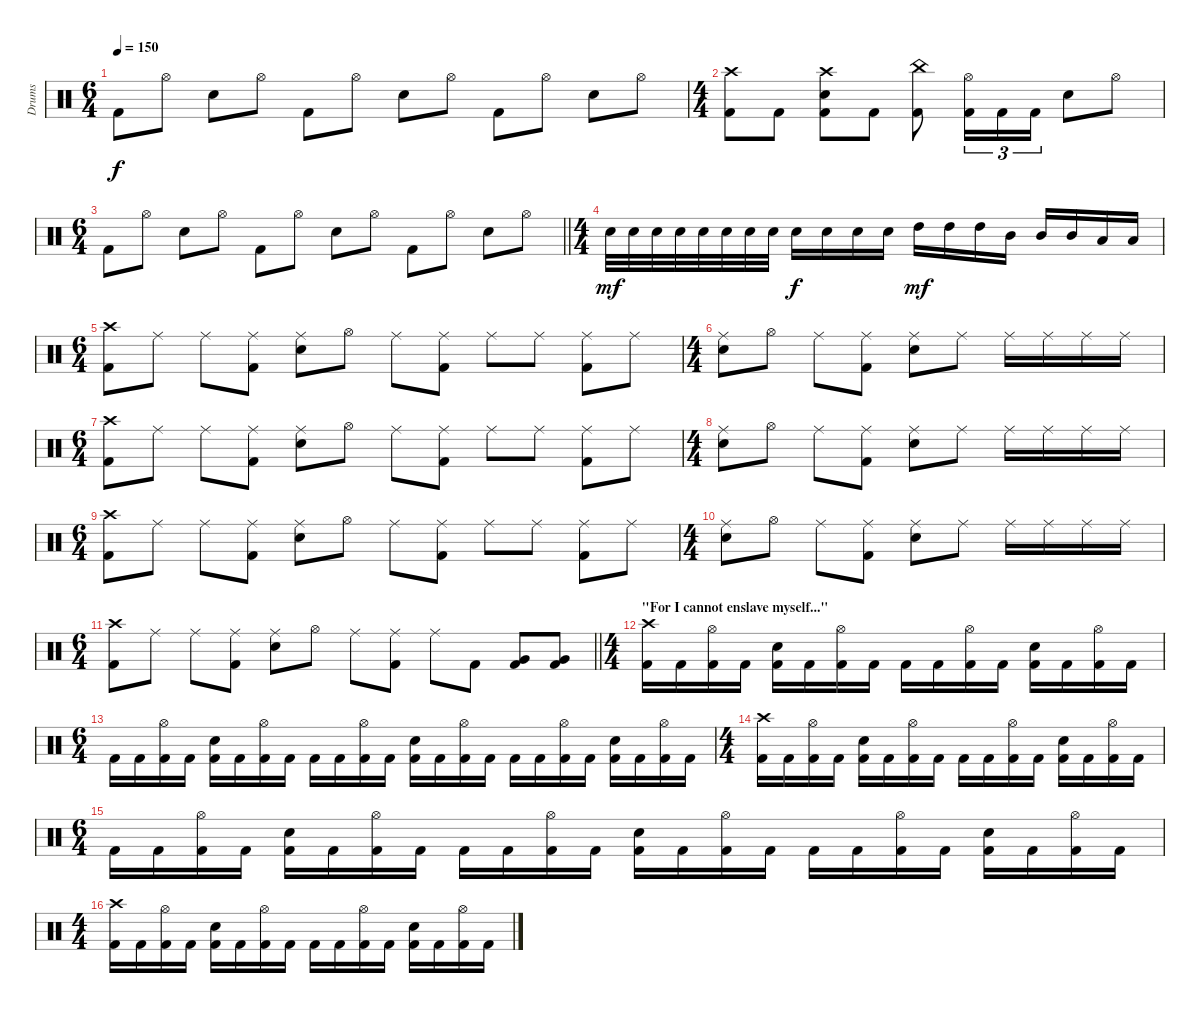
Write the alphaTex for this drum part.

\track ("Drums" "Drums") {instrument percussion}
\staff {score}
\articulation defaults
\ts (6 4)
\tempo 150
\clef neutral
\ks c "Kick (hit) 2".8{dy f} "Hi-Hat (open)".8 "Electric Snare (hit)".8 "Hi-Hat (open)".8 "Kick (hit) 2".8 "Hi-Hat (open)".8 "Electric Snare (hit)".8 "Hi-Hat (open)".8 "Kick (hit) 2".8 "Hi-Hat (open)".8 "Electric Snare (hit)".8 "Hi-Hat (open)".8
|
\ts (4 4)
("Crash high (hit)" "Kick (hit) 2").8 "Kick (hit) 2".8 ("Crash high (hit)" "Electric Snare (hit)" "Kick (hit) 2").8 "Kick (hit) 2".8 ("China (hit)" "Kick (hit) 2").8 ("Hi-Hat (open)" "Kick (hit) 2").16{tu (3 2)} "Kick (hit) 2".16{tu (3 2)} "Kick (hit) 2".16{tu (3 2)} "Electric Snare (hit)".8 "Hi-Hat (open)".8 |
\ts (6 4)
\barLineRight lightlight "Kick (hit) 2".8 "Hi-Hat (open)".8 "Electric Snare (hit)".8 "Hi-Hat (open)".8 "Kick (hit) 2".8 "Hi-Hat (open)".8 "Electric Snare (hit)".8 "Hi-Hat (open)".8 "Kick (hit) 2".8 "Hi-Hat (open)".8 "Electric Snare (hit)".8 "Hi-Hat (open)".8
|
\ts (4 4)
\section ("" "")
"Electric Snare (hit)".32{dy mf} "Electric Snare (hit)".32 "Electric Snare (hit)".32 "Electric Snare (hit)".32 "Electric Snare (hit)".32 "Electric Snare (hit)".32 "Electric Snare (hit)".32 "Electric Snare (hit)".32 "Electric Snare (hit)".16{dy f} "Electric Snare (hit)".16 "Electric Snare (hit)".16 "Electric Snare (hit)".16 "High Tom (hit)".16{dy mf} "High Tom (hit)".16 "High Tom (hit)".16 "Mid Tom (hit)".16 "Mid Tom (hit)".16 "Mid Tom (hit)".16 "Low Tom (hit)".16 "Low Tom (hit)".16 |
\ts (6 4)
("Crash high (hit)" "Kick (hit) 2").8 "Ride (middle)".8 "Ride (middle)".8 ("Ride (middle)" "Kick (hit) 2").8 ("Ride (middle)" "Electric Snare (hit)").8 "Hi-Hat (open)".8 "Ride (middle)".8 ("Ride (middle)" "Kick (hit) 2").8 "Ride (middle)".8 "Ride (middle)".8 ("Ride (middle)" "Kick (hit) 2").8 "Ride (middle)".8 |
\ts (4 4)
("Ride (middle)" "Electric Snare (hit)").8 "Hi-Hat (open)".8 "Ride (middle)".8 ("Ride (middle)" "Kick (hit) 2").8 ("Ride (middle)" "Electric Snare (hit)").8 "Ride (middle)".8 "Ride (middle)".16 "Ride (middle)".16 "Ride (middle)".16 "Ride (middle)".16 |
\ts (6 4)
("Crash high (hit)" "Kick (hit) 2").8 "Ride (middle)".8 "Ride (middle)".8 ("Ride (middle)" "Kick (hit) 2").8 ("Ride (middle)" "Electric Snare (hit)").8 "Hi-Hat (open)".8 "Ride (middle)".8 ("Ride (middle)" "Kick (hit) 2").8 "Ride (middle)".8 "Ride (middle)".8 ("Ride (middle)" "Kick (hit) 2").8 "Ride (middle)".8 |
\ts (4 4)
("Ride (middle)" "Electric Snare (hit)").8 "Hi-Hat (open)".8 "Ride (middle)".8 ("Ride (middle)" "Kick (hit) 2").8 ("Ride (middle)" "Electric Snare (hit)").8 "Ride (middle)".8 "Ride (middle)".16 "Ride (middle)".16 "Ride (middle)".16 "Ride (middle)".16 |
\ts (6 4)
("Crash high (hit)" "Kick (hit) 2").8 "Ride (middle)".8 "Ride (middle)".8 ("Ride (middle)" "Kick (hit) 2").8 ("Ride (middle)" "Electric Snare (hit)").8 "Hi-Hat (open)".8 "Ride (middle)".8 ("Ride (middle)" "Kick (hit) 2").8 "Ride (middle)".8 "Ride (middle)".8 ("Ride (middle)" "Kick (hit) 2").8 "Ride (middle)".8 |
\ts (4 4)
("Ride (middle)" "Electric Snare (hit)").8 "Hi-Hat (open)".8 "Ride (middle)".8 ("Ride (middle)" "Kick (hit) 2").8 ("Ride (middle)" "Electric Snare (hit)").8 "Ride (middle)".8 "Ride (middle)".16 "Ride (middle)".16 "Ride (middle)".16 "Ride (middle)".16 |
\ts (6 4)
\barLineRight lightlight
("Crash high (hit)" "Kick (hit) 2").8 "Ride (middle)".8 "Ride (middle)".8 ("Ride (middle)" "Kick (hit) 2").8 ("Ride (middle)" "Electric Snare (hit)").8 "Hi-Hat (open)".8 "Ride (middle)".8 ("Ride (middle)" "Kick (hit) 2").8 "Ride (middle)".8 "Kick (hit) 2".8 ("Very Low Tom (hit)" "Kick (hit) 2").8 ("Very Low Tom (hit)" "Kick (hit) 2").8 |
\ts (4 4)
\section ("" "\"For I cannot enslave myself...\"")
("Crash high (hit)" "Kick (hit) 2").16 "Kick (hit) 2".16 ("Hi-Hat (open)" "Kick (hit) 2").16 "Kick (hit) 2".16 ("Electric Snare (hit)" "Kick (hit) 2").16 "Kick (hit) 2".16 ("Hi-Hat (open)" "Kick (hit) 2").16 "Kick (hit) 2".16 "Kick (hit) 2".16 "Kick (hit) 2".16 ("Hi-Hat (open)" "Kick (hit) 2").16 "Kick (hit) 2".16 ("Electric Snare (hit)" "Kick (hit) 2").16 "Kick (hit) 2".16 ("Hi-Hat (open)" "Kick (hit) 2").16 "Kick (hit) 2".16 |
\ts (6 4)
"Kick (hit) 2".16 "Kick (hit) 2".16 ("Hi-Hat (open)" "Kick (hit) 2").16 "Kick (hit) 2".16 ("Electric Snare (hit)" "Kick (hit) 2").16 "Kick (hit) 2".16 ("Hi-Hat (open)" "Kick (hit) 2").16 "Kick (hit) 2".16 "Kick (hit) 2".16 "Kick (hit) 2".16 ("Hi-Hat (open)" "Kick (hit) 2").16 "Kick (hit) 2".16 ("Electric Snare (hit)" "Kick (hit) 2").16 "Kick (hit) 2".16 ("Hi-Hat (open)" "Kick (hit) 2").16 "Kick (hit) 2".16 "Kick (hit) 2".16 "Kick (hit) 2".16 ("Hi-Hat (open)" "Kick (hit) 2").16 "Kick (hit) 2".16 ("Electric Snare (hit)" "Kick (hit) 2").16 "Kick (hit) 2".16 ("Hi-Hat (open)" "Kick (hit) 2").16 "Kick (hit) 2".16 |
\ts (4 4)
("Crash high (hit)" "Kick (hit) 2").16 "Kick (hit) 2".16 ("Hi-Hat (open)" "Kick (hit) 2").16 "Kick (hit) 2".16 ("Electric Snare (hit)" "Kick (hit) 2").16 "Kick (hit) 2".16 ("Hi-Hat (open)" "Kick (hit) 2").16 "Kick (hit) 2".16 "Kick (hit) 2".16 "Kick (hit) 2".16 ("Hi-Hat (open)" "Kick (hit) 2").16 "Kick (hit) 2".16 ("Electric Snare (hit)" "Kick (hit) 2").16 "Kick (hit) 2".16 ("Hi-Hat (open)" "Kick (hit) 2").16 "Kick (hit) 2".16 |
\ts (6 4)
"Kick (hit) 2".16 "Kick (hit) 2".16 ("Hi-Hat (open)" "Kick (hit) 2").16 "Kick (hit) 2".16 ("Electric Snare (hit)" "Kick (hit) 2").16 "Kick (hit) 2".16 ("Hi-Hat (open)" "Kick (hit) 2").16 "Kick (hit) 2".16 "Kick (hit) 2".16 "Kick (hit) 2".16 ("Hi-Hat (open)" "Kick (hit) 2").16 "Kick (hit) 2".16 ("Electric Snare (hit)" "Kick (hit) 2").16 "Kick (hit) 2".16 ("Hi-Hat (open)" "Kick (hit) 2").16 "Kick (hit) 2".16 "Kick (hit) 2".16 "Kick (hit) 2".16 ("Hi-Hat (open)" "Kick (hit) 2").16 "Kick (hit) 2".16 ("Electric Snare (hit)" "Kick (hit) 2").16 "Kick (hit) 2".16 ("Hi-Hat (open)" "Kick (hit) 2").16 "Kick (hit) 2".16 |
\ts (4 4)
("Crash high (hit)" "Kick (hit) 2").16 "Kick (hit) 2".16 ("Hi-Hat (open)" "Kick (hit) 2").16 "Kick (hit) 2".16 ("Electric Snare (hit)" "Kick (hit) 2").16 "Kick (hit) 2".16 ("Hi-Hat (open)" "Kick (hit) 2").16 "Kick (hit) 2".16 "Kick (hit) 2".16 "Kick (hit) 2".16 ("Hi-Hat (open)" "Kick (hit) 2").16 "Kick (hit) 2".16 ("Electric Snare (hit)" "Kick (hit) 2").16 "Kick (hit) 2".16 ("Hi-Hat (open)" "Kick (hit) 2").16 "Kick (hit) 2".16
